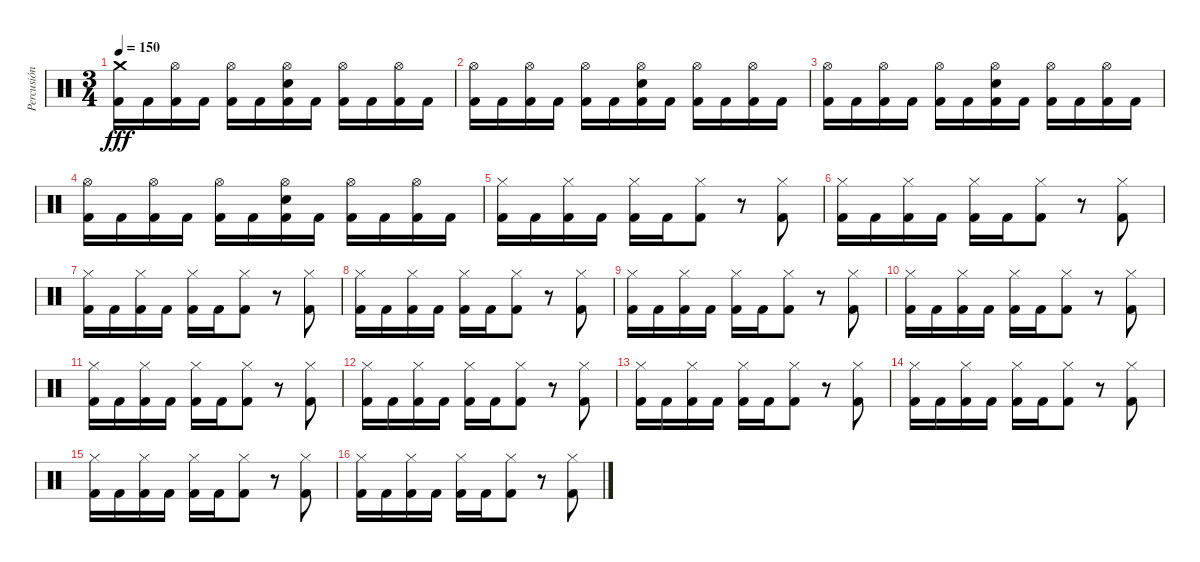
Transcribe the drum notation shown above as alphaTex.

\track ("Percusión" "Percusión") {instrument percussion}
\staff {score}
\articulation defaults
\ts (3 4)
\tempo 150
\clef neutral
\ks c
("Crash medium (hit)" "Kick (hit) 2").16{dy fff} "Kick (hit) 2".16 ("Hi-Hat (open)" "Kick (hit) 2").16 "Kick (hit) 2".16 ("Hi-Hat (open)" "Kick (hit) 2").16 "Kick (hit) 2".16 ("Hi-Hat (open)" "Snare (hit) 2" "Kick (hit) 2").16 "Kick (hit) 2".16 ("Hi-Hat (open)" "Kick (hit) 2").16 "Kick (hit) 2".16 ("Hi-Hat (open)" "Kick (hit) 2").16 "Kick (hit) 2".16 |
("Hi-Hat (open)" "Kick (hit) 2").16 "Kick (hit) 2".16 ("Hi-Hat (open)" "Kick (hit) 2").16 "Kick (hit) 2".16 ("Hi-Hat (open)" "Kick (hit) 2").16 "Kick (hit) 2".16 ("Hi-Hat (open)" "Snare (hit) 2" "Kick (hit) 2").16 "Kick (hit) 2".16 ("Hi-Hat (open)" "Kick (hit) 2").16 "Kick (hit) 2".16 ("Hi-Hat (open)" "Kick (hit) 2").16 "Kick (hit) 2".16 |
("Hi-Hat (open)" "Kick (hit) 2").16 "Kick (hit) 2".16 ("Hi-Hat (open)" "Kick (hit) 2").16 "Kick (hit) 2".16 ("Hi-Hat (open)" "Kick (hit) 2").16 "Kick (hit) 2".16 ("Hi-Hat (open)" "Snare (hit) 2" "Kick (hit) 2").16 "Kick (hit) 2".16 ("Hi-Hat (open)" "Kick (hit) 2").16 "Kick (hit) 2".16 ("Hi-Hat (open)" "Kick (hit) 2").16 "Kick (hit) 2".16 |
("Hi-Hat (open)" "Kick (hit) 2").16 "Kick (hit) 2".16 ("Hi-Hat (open)" "Kick (hit) 2").16 "Kick (hit) 2".16 ("Hi-Hat (open)" "Kick (hit) 2").16 "Kick (hit) 2".16 ("Hi-Hat (open)" "Snare (hit) 2" "Kick (hit) 2").16 "Kick (hit) 2".16 ("Hi-Hat (open)" "Kick (hit) 2").16 "Kick (hit) 2".16 ("Hi-Hat (open)" "Kick (hit) 2").16 "Kick (hit) 2".16 |
("Hi-Hat (closed)" "Kick (hit) 2").16 "Kick (hit) 2".16 ("Hi-Hat (closed)" "Kick (hit) 2").16 "Kick (hit) 2".16 ("Hi-Hat (closed)" "Kick (hit) 2").16 "Kick (hit) 2".16 ("Hi-Hat (closed)" "Kick (hit) 2").8 r.8 ("Hi-Hat (closed)" "Kick (hit) 2").8 |
("Hi-Hat (closed)" "Kick (hit) 2").16 "Kick (hit) 2".16 ("Hi-Hat (closed)" "Kick (hit) 2").16 "Kick (hit) 2".16 ("Hi-Hat (closed)" "Kick (hit) 2").16 "Kick (hit) 2".16 ("Hi-Hat (closed)" "Kick (hit) 2").8 r.8 ("Hi-Hat (closed)" "Kick (hit) 2").8 |
("Hi-Hat (closed)" "Kick (hit) 2").16 "Kick (hit) 2".16 ("Hi-Hat (closed)" "Kick (hit) 2").16 "Kick (hit) 2".16 ("Hi-Hat (closed)" "Kick (hit) 2").16 "Kick (hit) 2".16 ("Hi-Hat (closed)" "Kick (hit) 2").8 r.8 ("Hi-Hat (closed)" "Kick (hit) 2").8 |
("Hi-Hat (closed)" "Kick (hit) 2").16 "Kick (hit) 2".16 ("Hi-Hat (closed)" "Kick (hit) 2").16 "Kick (hit) 2".16 ("Hi-Hat (closed)" "Kick (hit) 2").16 "Kick (hit) 2".16 ("Hi-Hat (closed)" "Kick (hit) 2").8 r.8 ("Hi-Hat (closed)" "Kick (hit) 2").8 |
("Hi-Hat (closed)" "Kick (hit) 2").16 "Kick (hit) 2".16 ("Hi-Hat (closed)" "Kick (hit) 2").16 "Kick (hit) 2".16 ("Hi-Hat (closed)" "Kick (hit) 2").16 "Kick (hit) 2".16 ("Hi-Hat (closed)" "Kick (hit) 2").8 r.8 ("Hi-Hat (closed)" "Kick (hit) 2").8 |
("Hi-Hat (closed)" "Kick (hit) 2").16 "Kick (hit) 2".16 ("Hi-Hat (closed)" "Kick (hit) 2").16 "Kick (hit) 2".16 ("Hi-Hat (closed)" "Kick (hit) 2").16 "Kick (hit) 2".16 ("Hi-Hat (closed)" "Kick (hit) 2").8 r.8 ("Hi-Hat (closed)" "Kick (hit) 2").8 |
("Hi-Hat (closed)" "Kick (hit) 2").16 "Kick (hit) 2".16 ("Hi-Hat (closed)" "Kick (hit) 2").16 "Kick (hit) 2".16 ("Hi-Hat (closed)" "Kick (hit) 2").16 "Kick (hit) 2".16 ("Hi-Hat (closed)" "Kick (hit) 2").8 r.8 ("Hi-Hat (closed)" "Kick (hit) 2").8 |
("Hi-Hat (closed)" "Kick (hit) 2").16 "Kick (hit) 2".16 ("Hi-Hat (closed)" "Kick (hit) 2").16 "Kick (hit) 2".16 ("Hi-Hat (closed)" "Kick (hit) 2").16 "Kick (hit) 2".16 ("Hi-Hat (closed)" "Kick (hit) 2").8 r.8 ("Hi-Hat (closed)" "Kick (hit) 2").8 |
("Hi-Hat (closed)" "Kick (hit) 2").16 "Kick (hit) 2".16 ("Hi-Hat (closed)" "Kick (hit) 2").16 "Kick (hit) 2".16 ("Hi-Hat (closed)" "Kick (hit) 2").16 "Kick (hit) 2".16 ("Hi-Hat (closed)" "Kick (hit) 2").8 r.8 ("Hi-Hat (closed)" "Kick (hit) 2").8 |
("Hi-Hat (closed)" "Kick (hit) 2").16 "Kick (hit) 2".16 ("Hi-Hat (closed)" "Kick (hit) 2").16 "Kick (hit) 2".16 ("Hi-Hat (closed)" "Kick (hit) 2").16 "Kick (hit) 2".16 ("Hi-Hat (closed)" "Kick (hit) 2").8 r.8 ("Hi-Hat (closed)" "Kick (hit) 2").8 |
("Hi-Hat (closed)" "Kick (hit) 2").16 "Kick (hit) 2".16 ("Hi-Hat (closed)" "Kick (hit) 2").16 "Kick (hit) 2".16 ("Hi-Hat (closed)" "Kick (hit) 2").16 "Kick (hit) 2".16 ("Hi-Hat (closed)" "Kick (hit) 2").8 r.8 ("Hi-Hat (closed)" "Kick (hit) 2").8 |
("Hi-Hat (closed)" "Kick (hit) 2").16 "Kick (hit) 2".16 ("Hi-Hat (closed)" "Kick (hit) 2").16 "Kick (hit) 2".16 ("Hi-Hat (closed)" "Kick (hit) 2").16 "Kick (hit) 2".16 ("Hi-Hat (closed)" "Kick (hit) 2").8 r.8 ("Hi-Hat (closed)" "Kick (hit) 2").8
